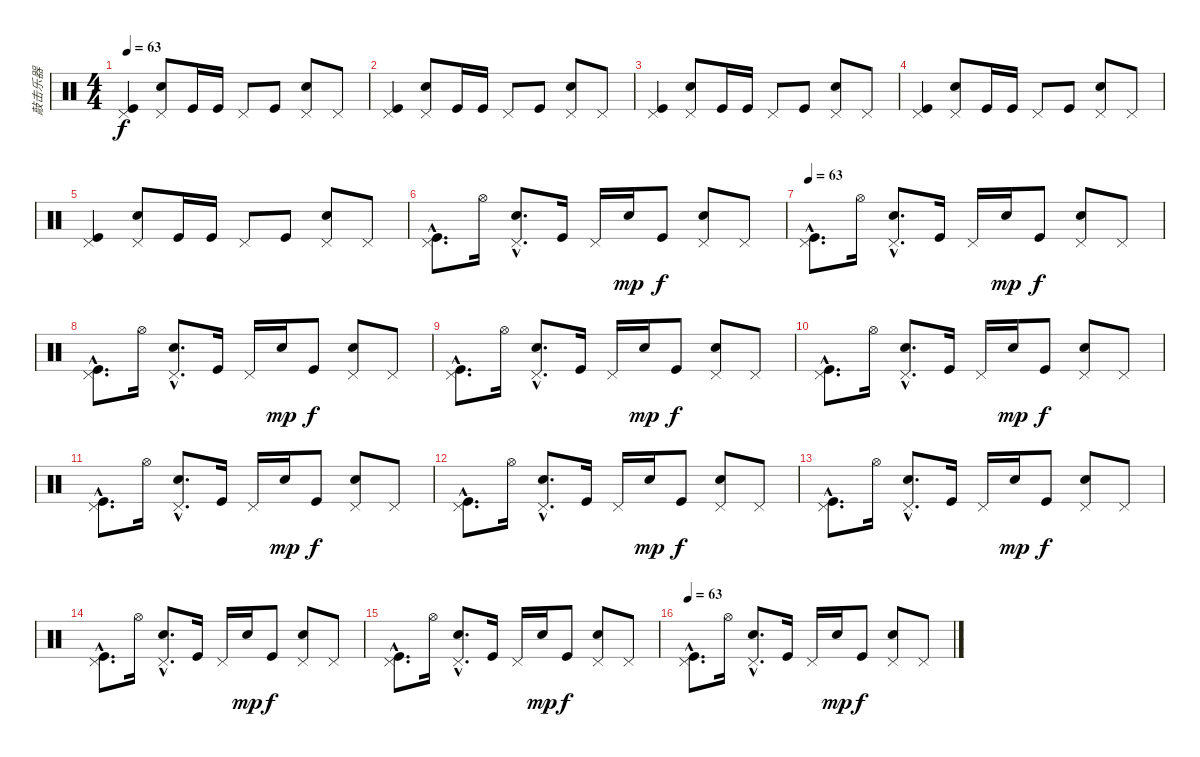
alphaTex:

\track ("敲击乐器" "敲击乐器") {instrument percussion}
\staff {score}
\articulation defaults
\ts (4 4)
\tempo 63
\clef neutral
\ks c
("Pedal Hi-Hat (hit)" "Kick (hit)").4{dy f} ("Pedal Hi-Hat (hit)" "Snare (hit) 2").8 "Kick (hit)".16 "Kick (hit)".16 "Pedal Hi-Hat (hit)".8 "Kick (hit)".8 ("Pedal Hi-Hat (hit)" "Snare (hit) 2").8 "Pedal Hi-Hat (hit)".8 |
("Pedal Hi-Hat (hit)" "Kick (hit)").4 ("Pedal Hi-Hat (hit)" "Snare (hit) 2").8 "Kick (hit)".16 "Kick (hit)".16 "Pedal Hi-Hat (hit)".8 "Kick (hit)".8 ("Pedal Hi-Hat (hit)" "Snare (hit) 2").8 "Pedal Hi-Hat (hit)".8 |
("Pedal Hi-Hat (hit)" "Kick (hit)").4 ("Pedal Hi-Hat (hit)" "Snare (hit) 2").8 "Kick (hit)".16 "Kick (hit)".16 "Pedal Hi-Hat (hit)".8 "Kick (hit)".8 ("Pedal Hi-Hat (hit)" "Snare (hit) 2").8 "Pedal Hi-Hat (hit)".8 |
("Pedal Hi-Hat (hit)" "Kick (hit)").4 ("Pedal Hi-Hat (hit)" "Snare (hit) 2").8 "Kick (hit)".16 "Kick (hit)".16 "Pedal Hi-Hat (hit)".8 "Kick (hit)".8 ("Pedal Hi-Hat (hit)" "Snare (hit) 2").8 "Pedal Hi-Hat (hit)".8 |
("Pedal Hi-Hat (hit)" "Kick (hit)").4 ("Pedal Hi-Hat (hit)" "Snare (hit) 2").8 "Kick (hit)".16 "Kick (hit)".16 "Pedal Hi-Hat (hit)".8 "Kick (hit)".8 ("Pedal Hi-Hat (hit)" "Snare (hit) 2").8 "Pedal Hi-Hat (hit)".8 |
("Pedal Hi-Hat (hit)"{hac} "Kick (hit)"{hac}).8{d} "Hi-Hat (open)".16 ("Pedal Hi-Hat (hit)"{hac} "Snare (hit) 2"{hac}).8{d} "Kick (hit)".16 "Pedal Hi-Hat (hit)".16 "Electric Snare (hit)".16{dy mp} "Kick (hit)".8{dy f} ("Pedal Hi-Hat (hit)" "Snare (hit) 2").8 "Pedal Hi-Hat (hit)".8 |
\tempo 63
("Pedal Hi-Hat (hit)"{hac} "Kick (hit)"{hac}).8{d} "Hi-Hat (open)".16 ("Pedal Hi-Hat (hit)"{hac} "Snare (hit) 2"{hac}).8{d} "Kick (hit)".16 "Pedal Hi-Hat (hit)".16 "Electric Snare (hit)".16{dy mp} "Kick (hit)".8{dy f} ("Pedal Hi-Hat (hit)" "Snare (hit) 2").8 "Pedal Hi-Hat (hit)".8 |
("Pedal Hi-Hat (hit)"{hac} "Kick (hit)"{hac}).8{d} "Hi-Hat (open)".16 ("Pedal Hi-Hat (hit)"{hac} "Snare (hit) 2"{hac}).8{d} "Kick (hit)".16 "Pedal Hi-Hat (hit)".16 "Electric Snare (hit)".16{dy mp} "Kick (hit)".8{dy f} ("Pedal Hi-Hat (hit)" "Snare (hit) 2").8 "Pedal Hi-Hat (hit)".8 |
("Pedal Hi-Hat (hit)"{hac} "Kick (hit)"{hac}).8{d} "Hi-Hat (open)".16 ("Pedal Hi-Hat (hit)"{hac} "Snare (hit) 2"{hac}).8{d} "Kick (hit)".16 "Pedal Hi-Hat (hit)".16 "Electric Snare (hit)".16{dy mp} "Kick (hit)".8{dy f} ("Pedal Hi-Hat (hit)" "Snare (hit) 2").8 "Pedal Hi-Hat (hit)".8 |
("Pedal Hi-Hat (hit)"{hac} "Kick (hit)"{hac}).8{d} "Hi-Hat (open)".16 ("Pedal Hi-Hat (hit)"{hac} "Snare (hit) 2"{hac}).8{d} "Kick (hit)".16 "Pedal Hi-Hat (hit)".16 "Electric Snare (hit)".16{dy mp} "Kick (hit)".8{dy f} ("Pedal Hi-Hat (hit)" "Snare (hit) 2").8 "Pedal Hi-Hat (hit)".8 |
("Pedal Hi-Hat (hit)"{hac} "Kick (hit)"{hac}).8{d} "Hi-Hat (open)".16 ("Pedal Hi-Hat (hit)"{hac} "Snare (hit) 2"{hac}).8{d} "Kick (hit)".16 "Pedal Hi-Hat (hit)".16 "Electric Snare (hit)".16{dy mp} "Kick (hit)".8{dy f} ("Pedal Hi-Hat (hit)" "Snare (hit) 2").8 "Pedal Hi-Hat (hit)".8 |
("Pedal Hi-Hat (hit)"{hac} "Kick (hit)"{hac}).8{d} "Hi-Hat (open)".16 ("Pedal Hi-Hat (hit)"{hac} "Snare (hit) 2"{hac}).8{d} "Kick (hit)".16 "Pedal Hi-Hat (hit)".16 "Electric Snare (hit)".16{dy mp} "Kick (hit)".8{dy f} ("Pedal Hi-Hat (hit)" "Snare (hit) 2").8 "Pedal Hi-Hat (hit)".8 |
("Pedal Hi-Hat (hit)"{hac} "Kick (hit)"{hac}).8{d} "Hi-Hat (open)".16 ("Pedal Hi-Hat (hit)"{hac} "Snare (hit) 2"{hac}).8{d} "Kick (hit)".16 "Pedal Hi-Hat (hit)".16 "Electric Snare (hit)".16{dy mp} "Kick (hit)".8{dy f} ("Pedal Hi-Hat (hit)" "Snare (hit) 2").8 "Pedal Hi-Hat (hit)".8 |
("Pedal Hi-Hat (hit)"{hac} "Kick (hit)"{hac}).8{d} "Hi-Hat (open)".16 ("Pedal Hi-Hat (hit)"{hac} "Snare (hit) 2"{hac}).8{d} "Kick (hit)".16 "Pedal Hi-Hat (hit)".16 "Electric Snare (hit)".16{dy mp} "Kick (hit)".8{dy f} ("Pedal Hi-Hat (hit)" "Snare (hit) 2").8 "Pedal Hi-Hat (hit)".8 |
("Pedal Hi-Hat (hit)"{hac} "Kick (hit)"{hac}).8{d} "Hi-Hat (open)".16 ("Pedal Hi-Hat (hit)"{hac} "Snare (hit) 2"{hac}).8{d} "Kick (hit)".16 "Pedal Hi-Hat (hit)".16 "Electric Snare (hit)".16{dy mp} "Kick (hit)".8{dy f} ("Pedal Hi-Hat (hit)" "Snare (hit) 2").8 "Pedal Hi-Hat (hit)".8 |
\tempo 63
("Pedal Hi-Hat (hit)"{hac} "Kick (hit)"{hac}).8{d} "Hi-Hat (open)".16 ("Pedal Hi-Hat (hit)"{hac} "Snare (hit) 2"{hac}).8{d} "Kick (hit)".16 "Pedal Hi-Hat (hit)".16 "Electric Snare (hit)".16{dy mp} "Kick (hit)".8{dy f} ("Pedal Hi-Hat (hit)" "Snare (hit) 2").8 "Pedal Hi-Hat (hit)".8
